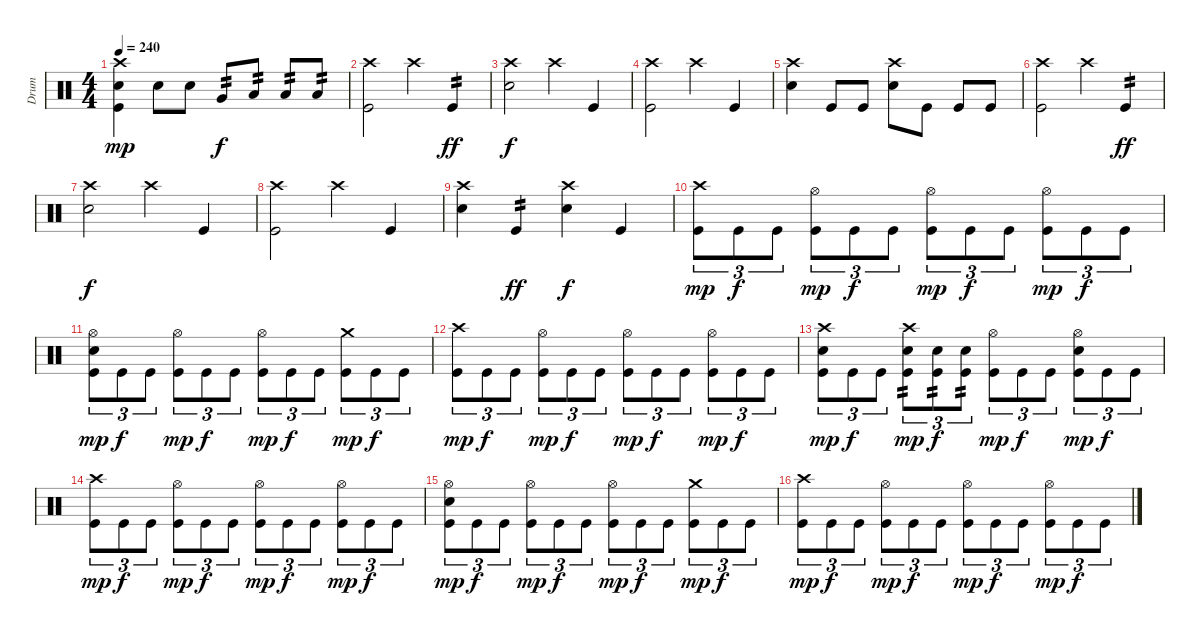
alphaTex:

\track ("Drum" "Drum") {instrument percussion}
\staff {score}
\articulation defaults
\ts (4 4)
\tempo 240
\clef neutral
\ks c
("Crash high (hit)" "Electric Snare (hit)" "Kick (hit)").4{dy mp} "Electric Snare (hit)".8 "Electric Snare (hit)".8 "Very Low Tom (hit)".8{tp 2 dy f} "Low Floor Tom (hit)".8{tp 2} "Low Floor Tom (hit)".8{tp 2} "Low Floor Tom (hit)".8{tp 2} |
("Crash high (hit)" "Kick (hit)").2 "Crash high (hit)".4 "Kick (hit)".4{tp 2 dy ff} |
("Crash high (hit)" "Electric Snare (hit)").2{dy f} "Crash high (hit)".4 "Kick (hit)".4 |
("Crash high (hit)" "Kick (hit)").2 "Crash high (hit)".4 "Kick (hit)".4 |
("Crash high (hit)" "Electric Snare (hit)").4 "Kick (hit)".8 "Kick (hit)".8 ("Crash high (hit)" "Electric Snare (hit)").8 "Kick (hit)".8 "Kick (hit)".8 "Kick (hit)".8 |
("Crash high (hit)" "Kick (hit)").2 "Crash high (hit)".4 "Kick (hit)".4{tp 2 dy ff} |
("Crash high (hit)" "Electric Snare (hit)").2{dy f} "Crash high (hit)".4 "Kick (hit)".4 |
("Crash high (hit)" "Kick (hit)").2 "Crash high (hit)".4 "Kick (hit)".4 |
("Crash high (hit)" "Electric Snare (hit)").4 "Kick (hit)".4{tp 2 dy ff} ("Crash high (hit)" "Electric Snare (hit)").4{dy f} "Kick (hit)".4 |
("Crash high (hit)" "Kick (hit)").8{tu (3 2) dy mp} "Kick (hit)".8{tu (3 2) dy f} "Kick (hit)".8{tu (3 2)} ("Hi-Hat (open)" "Kick (hit)").8{tu (3 2) dy mp} "Kick (hit)".8{tu (3 2) dy f} "Kick (hit)".8{tu (3 2)} ("Hi-Hat (open)" "Kick (hit)").8{tu (3 2) dy mp} "Kick (hit)".8{tu (3 2) dy f} "Kick (hit)".8{tu (3 2)} ("Hi-Hat (open)" "Kick (hit)").8{tu (3 2) dy mp} "Kick (hit)".8{tu (3 2) dy f} "Kick (hit)".8{tu (3 2)} |
("Hi-Hat (open)" "Electric Snare (hit)" "Kick (hit)").8{tu (3 2) dy mp} "Kick (hit)".8{tu (3 2) dy f} "Kick (hit)".8{tu (3 2)} ("Hi-Hat (open)" "Kick (hit)").8{tu (3 2) dy mp} "Kick (hit)".8{tu (3 2) dy f} "Kick (hit)".8{tu (3 2)} ("Hi-Hat (open)" "Kick (hit)").8{tu (3 2) dy mp} "Kick (hit)".8{tu (3 2) dy f} "Kick (hit)".8{tu (3 2)} ("Crash medium (hit)" "Kick (hit)").8{tu (3 2) dy mp} "Kick (hit)".8{tu (3 2) dy f} "Kick (hit)".8{tu (3 2)} |
("Crash high (hit)" "Kick (hit)").8{tu (3 2) dy mp} "Kick (hit)".8{tu (3 2) dy f} "Kick (hit)".8{tu (3 2)} ("Hi-Hat (open)" "Kick (hit)").8{tu (3 2) dy mp} "Kick (hit)".8{tu (3 2) dy f} "Kick (hit)".8{tu (3 2)} ("Hi-Hat (open)" "Kick (hit)").8{tu (3 2) dy mp} "Kick (hit)".8{tu (3 2) dy f} "Kick (hit)".8{tu (3 2)} ("Hi-Hat (open)" "Kick (hit)").8{tu (3 2) dy mp} "Kick (hit)".8{tu (3 2) dy f} "Kick (hit)".8{tu (3 2)} |
("Crash high (hit)" "Electric Snare (hit)" "Kick (hit)").8{tu (3 2) dy mp} "Kick (hit)".8{tu (3 2) dy f} "Kick (hit)".8{tu (3 2)} ("Crash high (hit)" "Electric Snare (hit)" "Kick (hit)").8{tu (3 2) tp 2 dy mp} ("Electric Snare (hit)" "Kick (hit)").8{tu (3 2) tp 2 dy f} ("Electric Snare (hit)" "Kick (hit)").8{tu (3 2) tp 2} ("Hi-Hat (open)" "Kick (hit)").8{tu (3 2) dy mp} "Kick (hit)".8{tu (3 2) dy f} "Kick (hit)".8{tu (3 2)} ("Hi-Hat (open)" "Electric Snare (hit)" "Kick (hit)").8{tu (3 2) dy mp} "Kick (hit)".8{tu (3 2) dy f} "Kick (hit)".8{tu (3 2)} |
("Crash high (hit)" "Kick (hit)").8{tu (3 2) dy mp} "Kick (hit)".8{tu (3 2) dy f} "Kick (hit)".8{tu (3 2)} ("Hi-Hat (open)" "Kick (hit)").8{tu (3 2) dy mp} "Kick (hit)".8{tu (3 2) dy f} "Kick (hit)".8{tu (3 2)} ("Hi-Hat (open)" "Kick (hit)").8{tu (3 2) dy mp} "Kick (hit)".8{tu (3 2) dy f} "Kick (hit)".8{tu (3 2)} ("Hi-Hat (open)" "Kick (hit)").8{tu (3 2) dy mp} "Kick (hit)".8{tu (3 2) dy f} "Kick (hit)".8{tu (3 2)} |
("Hi-Hat (open)" "Electric Snare (hit)" "Kick (hit)").8{tu (3 2) dy mp} "Kick (hit)".8{tu (3 2) dy f} "Kick (hit)".8{tu (3 2)} ("Hi-Hat (open)" "Kick (hit)").8{tu (3 2) dy mp} "Kick (hit)".8{tu (3 2) dy f} "Kick (hit)".8{tu (3 2)} ("Hi-Hat (open)" "Kick (hit)").8{tu (3 2) dy mp} "Kick (hit)".8{tu (3 2) dy f} "Kick (hit)".8{tu (3 2)} ("Crash medium (hit)" "Kick (hit)").8{tu (3 2) dy mp} "Kick (hit)".8{tu (3 2) dy f} "Kick (hit)".8{tu (3 2)} |
("Crash high (hit)" "Kick (hit)").8{tu (3 2) dy mp} "Kick (hit)".8{tu (3 2) dy f} "Kick (hit)".8{tu (3 2)} ("Hi-Hat (open)" "Kick (hit)").8{tu (3 2) dy mp} "Kick (hit)".8{tu (3 2) dy f} "Kick (hit)".8{tu (3 2)} ("Hi-Hat (open)" "Kick (hit)").8{tu (3 2) dy mp} "Kick (hit)".8{tu (3 2) dy f} "Kick (hit)".8{tu (3 2)} ("Hi-Hat (open)" "Kick (hit)").8{tu (3 2) dy mp} "Kick (hit)".8{tu (3 2) dy f} "Kick (hit)".8{tu (3 2)}
